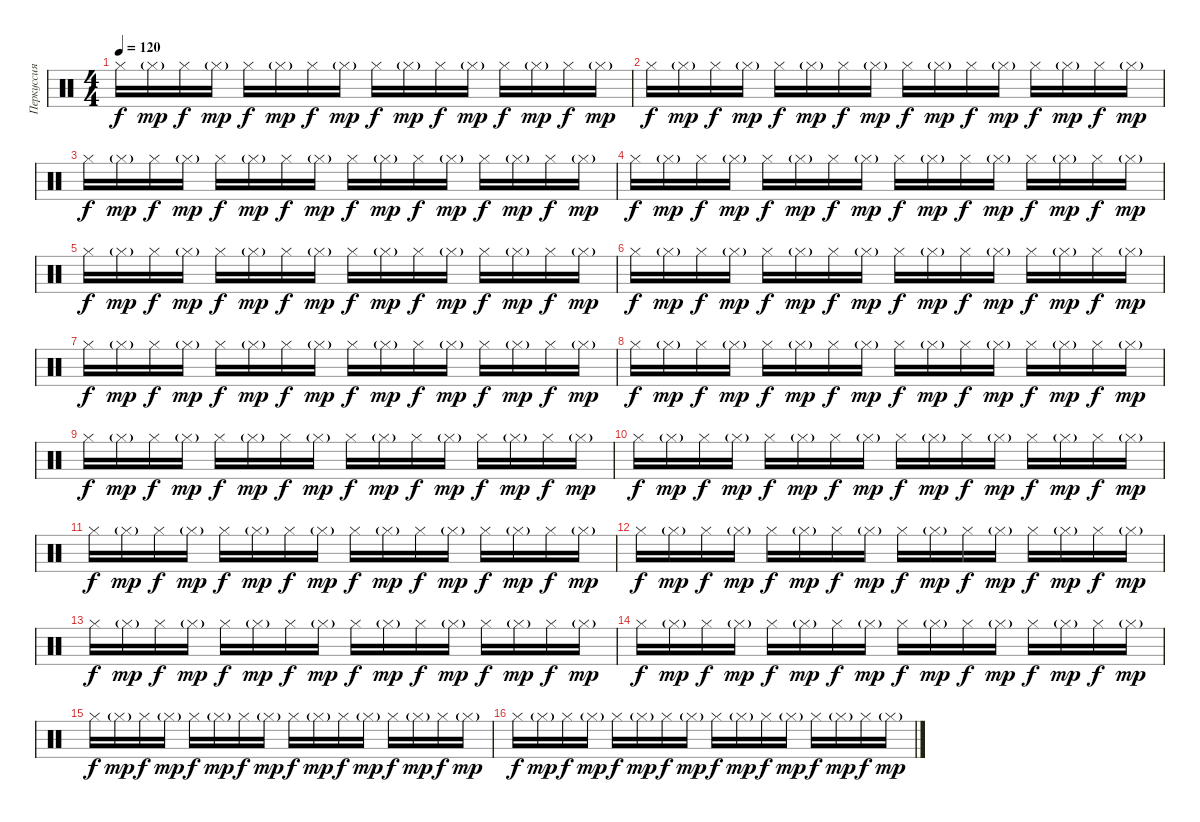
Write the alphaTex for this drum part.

\track ("Перкуссия" "Перкуссия") {instrument percussion}
\staff {score}
\articulation defaults
\ts (4 4)
\tempo 120
\clef neutral
\ks c "Hi-Hat (closed)".16{dy f} "Hi-Hat (closed)"{g}.16{dy mp} "Hi-Hat (closed)".16{dy f} "Hi-Hat (closed)"{g}.16{dy mp} "Hi-Hat (closed)".16{dy f} "Hi-Hat (closed)"{g}.16{dy mp} "Hi-Hat (closed)".16{dy f} "Hi-Hat (closed)"{g}.16{dy mp} "Hi-Hat (closed)".16{dy f} "Hi-Hat (closed)"{g}.16{dy mp} "Hi-Hat (closed)".16{dy f} "Hi-Hat (closed)"{g}.16{dy mp} "Hi-Hat (closed)".16{dy f} "Hi-Hat (closed)"{g}.16{dy mp} "Hi-Hat (closed)".16{dy f} "Hi-Hat (closed)"{g}.16{dy mp}
|
"Hi-Hat (closed)".16{dy f} "Hi-Hat (closed)"{g}.16{dy mp} "Hi-Hat (closed)".16{dy f} "Hi-Hat (closed)"{g}.16{dy mp} "Hi-Hat (closed)".16{dy f} "Hi-Hat (closed)"{g}.16{dy mp} "Hi-Hat (closed)".16{dy f} "Hi-Hat (closed)"{g}.16{dy mp} "Hi-Hat (closed)".16{dy f} "Hi-Hat (closed)"{g}.16{dy mp} "Hi-Hat (closed)".16{dy f} "Hi-Hat (closed)"{g}.16{dy mp} "Hi-Hat (closed)".16{dy f} "Hi-Hat (closed)"{g}.16{dy mp} "Hi-Hat (closed)".16{dy f} "Hi-Hat (closed)"{g}.16{dy mp} |
"Hi-Hat (closed)".16{dy f} "Hi-Hat (closed)"{g}.16{dy mp} "Hi-Hat (closed)".16{dy f} "Hi-Hat (closed)"{g}.16{dy mp} "Hi-Hat (closed)".16{dy f} "Hi-Hat (closed)"{g}.16{dy mp} "Hi-Hat (closed)".16{dy f} "Hi-Hat (closed)"{g}.16{dy mp} "Hi-Hat (closed)".16{dy f} "Hi-Hat (closed)"{g}.16{dy mp} "Hi-Hat (closed)".16{dy f} "Hi-Hat (closed)"{g}.16{dy mp} "Hi-Hat (closed)".16{dy f} "Hi-Hat (closed)"{g}.16{dy mp} "Hi-Hat (closed)".16{dy f} "Hi-Hat (closed)"{g}.16{dy mp} |
"Hi-Hat (closed)".16{dy f} "Hi-Hat (closed)"{g}.16{dy mp} "Hi-Hat (closed)".16{dy f} "Hi-Hat (closed)"{g}.16{dy mp} "Hi-Hat (closed)".16{dy f} "Hi-Hat (closed)"{g}.16{dy mp} "Hi-Hat (closed)".16{dy f} "Hi-Hat (closed)"{g}.16{dy mp} "Hi-Hat (closed)".16{dy f} "Hi-Hat (closed)"{g}.16{dy mp} "Hi-Hat (closed)".16{dy f} "Hi-Hat (closed)"{g}.16{dy mp} "Hi-Hat (closed)".16{dy f} "Hi-Hat (closed)"{g}.16{dy mp} "Hi-Hat (closed)".16{dy f} "Hi-Hat (closed)"{g}.16{dy mp} |
"Hi-Hat (closed)".16{dy f} "Hi-Hat (closed)"{g}.16{dy mp} "Hi-Hat (closed)".16{dy f} "Hi-Hat (closed)"{g}.16{dy mp} "Hi-Hat (closed)".16{dy f} "Hi-Hat (closed)"{g}.16{dy mp} "Hi-Hat (closed)".16{dy f} "Hi-Hat (closed)"{g}.16{dy mp} "Hi-Hat (closed)".16{dy f} "Hi-Hat (closed)"{g}.16{dy mp} "Hi-Hat (closed)".16{dy f} "Hi-Hat (closed)"{g}.16{dy mp} "Hi-Hat (closed)".16{dy f} "Hi-Hat (closed)"{g}.16{dy mp} "Hi-Hat (closed)".16{dy f} "Hi-Hat (closed)"{g}.16{dy mp} |
"Hi-Hat (closed)".16{dy f} "Hi-Hat (closed)"{g}.16{dy mp} "Hi-Hat (closed)".16{dy f} "Hi-Hat (closed)"{g}.16{dy mp} "Hi-Hat (closed)".16{dy f} "Hi-Hat (closed)"{g}.16{dy mp} "Hi-Hat (closed)".16{dy f} "Hi-Hat (closed)"{g}.16{dy mp} "Hi-Hat (closed)".16{dy f} "Hi-Hat (closed)"{g}.16{dy mp} "Hi-Hat (closed)".16{dy f} "Hi-Hat (closed)"{g}.16{dy mp} "Hi-Hat (closed)".16{dy f} "Hi-Hat (closed)"{g}.16{dy mp} "Hi-Hat (closed)".16{dy f} "Hi-Hat (closed)"{g}.16{dy mp} |
"Hi-Hat (closed)".16{dy f} "Hi-Hat (closed)"{g}.16{dy mp} "Hi-Hat (closed)".16{dy f} "Hi-Hat (closed)"{g}.16{dy mp} "Hi-Hat (closed)".16{dy f} "Hi-Hat (closed)"{g}.16{dy mp} "Hi-Hat (closed)".16{dy f} "Hi-Hat (closed)"{g}.16{dy mp} "Hi-Hat (closed)".16{dy f} "Hi-Hat (closed)"{g}.16{dy mp} "Hi-Hat (closed)".16{dy f} "Hi-Hat (closed)"{g}.16{dy mp} "Hi-Hat (closed)".16{dy f} "Hi-Hat (closed)"{g}.16{dy mp} "Hi-Hat (closed)".16{dy f} "Hi-Hat (closed)"{g}.16{dy mp} |
"Hi-Hat (closed)".16{dy f} "Hi-Hat (closed)"{g}.16{dy mp} "Hi-Hat (closed)".16{dy f} "Hi-Hat (closed)"{g}.16{dy mp} "Hi-Hat (closed)".16{dy f} "Hi-Hat (closed)"{g}.16{dy mp} "Hi-Hat (closed)".16{dy f} "Hi-Hat (closed)"{g}.16{dy mp} "Hi-Hat (closed)".16{dy f} "Hi-Hat (closed)"{g}.16{dy mp} "Hi-Hat (closed)".16{dy f} "Hi-Hat (closed)"{g}.16{dy mp} "Hi-Hat (closed)".16{dy f} "Hi-Hat (closed)"{g}.16{dy mp} "Hi-Hat (closed)".16{dy f} "Hi-Hat (closed)"{g}.16{dy mp} |
"Hi-Hat (closed)".16{dy f} "Hi-Hat (closed)"{g}.16{dy mp} "Hi-Hat (closed)".16{dy f} "Hi-Hat (closed)"{g}.16{dy mp} "Hi-Hat (closed)".16{dy f} "Hi-Hat (closed)"{g}.16{dy mp} "Hi-Hat (closed)".16{dy f} "Hi-Hat (closed)"{g}.16{dy mp} "Hi-Hat (closed)".16{dy f} "Hi-Hat (closed)"{g}.16{dy mp} "Hi-Hat (closed)".16{dy f} "Hi-Hat (closed)"{g}.16{dy mp} "Hi-Hat (closed)".16{dy f} "Hi-Hat (closed)"{g}.16{dy mp} "Hi-Hat (closed)".16{dy f} "Hi-Hat (closed)"{g}.16{dy mp} |
"Hi-Hat (closed)".16{dy f} "Hi-Hat (closed)"{g}.16{dy mp} "Hi-Hat (closed)".16{dy f} "Hi-Hat (closed)"{g}.16{dy mp} "Hi-Hat (closed)".16{dy f} "Hi-Hat (closed)"{g}.16{dy mp} "Hi-Hat (closed)".16{dy f} "Hi-Hat (closed)"{g}.16{dy mp} "Hi-Hat (closed)".16{dy f} "Hi-Hat (closed)"{g}.16{dy mp} "Hi-Hat (closed)".16{dy f} "Hi-Hat (closed)"{g}.16{dy mp} "Hi-Hat (closed)".16{dy f} "Hi-Hat (closed)"{g}.16{dy mp} "Hi-Hat (closed)".16{dy f} "Hi-Hat (closed)"{g}.16{dy mp} |
"Hi-Hat (closed)".16{dy f} "Hi-Hat (closed)"{g}.16{dy mp} "Hi-Hat (closed)".16{dy f} "Hi-Hat (closed)"{g}.16{dy mp} "Hi-Hat (closed)".16{dy f} "Hi-Hat (closed)"{g}.16{dy mp} "Hi-Hat (closed)".16{dy f} "Hi-Hat (closed)"{g}.16{dy mp} "Hi-Hat (closed)".16{dy f} "Hi-Hat (closed)"{g}.16{dy mp} "Hi-Hat (closed)".16{dy f} "Hi-Hat (closed)"{g}.16{dy mp} "Hi-Hat (closed)".16{dy f} "Hi-Hat (closed)"{g}.16{dy mp} "Hi-Hat (closed)".16{dy f} "Hi-Hat (closed)"{g}.16{dy mp} |
"Hi-Hat (closed)".16{dy f} "Hi-Hat (closed)"{g}.16{dy mp} "Hi-Hat (closed)".16{dy f} "Hi-Hat (closed)"{g}.16{dy mp} "Hi-Hat (closed)".16{dy f} "Hi-Hat (closed)"{g}.16{dy mp} "Hi-Hat (closed)".16{dy f} "Hi-Hat (closed)"{g}.16{dy mp} "Hi-Hat (closed)".16{dy f} "Hi-Hat (closed)"{g}.16{dy mp} "Hi-Hat (closed)".16{dy f} "Hi-Hat (closed)"{g}.16{dy mp} "Hi-Hat (closed)".16{dy f} "Hi-Hat (closed)"{g}.16{dy mp} "Hi-Hat (closed)".16{dy f} "Hi-Hat (closed)"{g}.16{dy mp} |
"Hi-Hat (closed)".16{dy f} "Hi-Hat (closed)"{g}.16{dy mp} "Hi-Hat (closed)".16{dy f} "Hi-Hat (closed)"{g}.16{dy mp} "Hi-Hat (closed)".16{dy f} "Hi-Hat (closed)"{g}.16{dy mp} "Hi-Hat (closed)".16{dy f} "Hi-Hat (closed)"{g}.16{dy mp} "Hi-Hat (closed)".16{dy f} "Hi-Hat (closed)"{g}.16{dy mp} "Hi-Hat (closed)".16{dy f} "Hi-Hat (closed)"{g}.16{dy mp} "Hi-Hat (closed)".16{dy f} "Hi-Hat (closed)"{g}.16{dy mp} "Hi-Hat (closed)".16{dy f} "Hi-Hat (closed)"{g}.16{dy mp} |
"Hi-Hat (closed)".16{dy f} "Hi-Hat (closed)"{g}.16{dy mp} "Hi-Hat (closed)".16{dy f} "Hi-Hat (closed)"{g}.16{dy mp} "Hi-Hat (closed)".16{dy f} "Hi-Hat (closed)"{g}.16{dy mp} "Hi-Hat (closed)".16{dy f} "Hi-Hat (closed)"{g}.16{dy mp} "Hi-Hat (closed)".16{dy f} "Hi-Hat (closed)"{g}.16{dy mp} "Hi-Hat (closed)".16{dy f} "Hi-Hat (closed)"{g}.16{dy mp} "Hi-Hat (closed)".16{dy f} "Hi-Hat (closed)"{g}.16{dy mp} "Hi-Hat (closed)".16{dy f} "Hi-Hat (closed)"{g}.16{dy mp} |
"Hi-Hat (closed)".16{dy f} "Hi-Hat (closed)"{g}.16{dy mp} "Hi-Hat (closed)".16{dy f} "Hi-Hat (closed)"{g}.16{dy mp} "Hi-Hat (closed)".16{dy f} "Hi-Hat (closed)"{g}.16{dy mp} "Hi-Hat (closed)".16{dy f} "Hi-Hat (closed)"{g}.16{dy mp} "Hi-Hat (closed)".16{dy f} "Hi-Hat (closed)"{g}.16{dy mp} "Hi-Hat (closed)".16{dy f} "Hi-Hat (closed)"{g}.16{dy mp} "Hi-Hat (closed)".16{dy f} "Hi-Hat (closed)"{g}.16{dy mp} "Hi-Hat (closed)".16{dy f} "Hi-Hat (closed)"{g}.16{dy mp} |
"Hi-Hat (closed)".16{dy f} "Hi-Hat (closed)"{g}.16{dy mp} "Hi-Hat (closed)".16{dy f} "Hi-Hat (closed)"{g}.16{dy mp} "Hi-Hat (closed)".16{dy f} "Hi-Hat (closed)"{g}.16{dy mp} "Hi-Hat (closed)".16{dy f} "Hi-Hat (closed)"{g}.16{dy mp} "Hi-Hat (closed)".16{dy f} "Hi-Hat (closed)"{g}.16{dy mp} "Hi-Hat (closed)".16{dy f} "Hi-Hat (closed)"{g}.16{dy mp} "Hi-Hat (closed)".16{dy f} "Hi-Hat (closed)"{g}.16{dy mp} "Hi-Hat (closed)".16{dy f} "Hi-Hat (closed)"{g}.16{dy mp}
